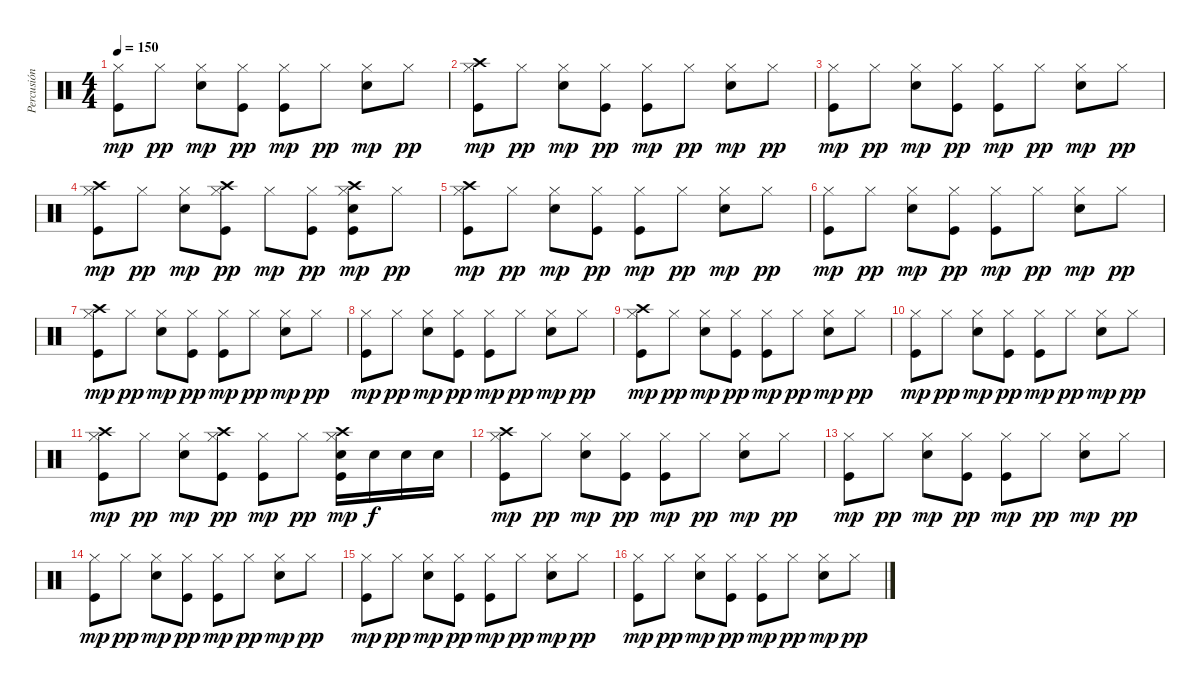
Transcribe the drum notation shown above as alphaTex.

\track ("Percusión" "Percusión") {instrument percussion}
\staff {score}
\articulation defaults
\ts (4 4)
\tempo 150
\clef neutral
\ks c
("Hi-Hat (closed)" "Kick (hit)").8{dy mp} "Hi-Hat (closed)".8{dy pp} ("Hi-Hat (closed)" "Snare (hit) 2").8{dy mp} ("Hi-Hat (closed)" "Kick (hit)").8{dy pp} ("Hi-Hat (closed)" "Kick (hit)").8{dy mp} "Hi-Hat (closed)".8{dy pp} ("Hi-Hat (closed)" "Snare (hit) 2").8{dy mp} "Hi-Hat (closed)".8{dy pp} |
("Crash high (hit)" "Hi-Hat (closed)" "Kick (hit)").8{dy mp} "Hi-Hat (closed)".8{dy pp} ("Hi-Hat (closed)" "Snare (hit) 2").8{dy mp} ("Hi-Hat (closed)" "Kick (hit)").8{dy pp} ("Hi-Hat (closed)" "Kick (hit)").8{dy mp} "Hi-Hat (closed)".8{dy pp} ("Hi-Hat (closed)" "Snare (hit) 2").8{dy mp} "Hi-Hat (closed)".8{dy pp} |
("Hi-Hat (closed)" "Kick (hit)").8{dy mp} "Hi-Hat (closed)".8{dy pp} ("Hi-Hat (closed)" "Snare (hit) 2").8{dy mp} ("Hi-Hat (closed)" "Kick (hit)").8{dy pp} ("Hi-Hat (closed)" "Kick (hit)").8{dy mp} "Hi-Hat (closed)".8{dy pp} ("Hi-Hat (closed)" "Snare (hit) 2").8{dy mp} "Hi-Hat (closed)".8{dy pp} |
("Crash high (hit)" "Hi-Hat (closed)" "Kick (hit)").8{dy mp} "Hi-Hat (closed)".8{dy pp} ("Hi-Hat (closed)" "Snare (hit) 2").8{dy mp} ("Crash high (hit)" "Hi-Hat (closed)" "Kick (hit)").8{dy pp} "Hi-Hat (closed)".8{dy mp} ("Hi-Hat (closed)" "Kick (hit)").8{dy pp} ("Crash high (hit)" "Hi-Hat (closed)" "Snare (hit) 2" "Kick (hit)").8{dy mp} "Hi-Hat (closed)".8{dy pp} |
("Crash high (hit)" "Hi-Hat (closed)" "Kick (hit)").8{dy mp} "Hi-Hat (closed)".8{dy pp} ("Hi-Hat (closed)" "Snare (hit) 2").8{dy mp} ("Hi-Hat (closed)" "Kick (hit)").8{dy pp} ("Hi-Hat (closed)" "Kick (hit)").8{dy mp} "Hi-Hat (closed)".8{dy pp} ("Hi-Hat (closed)" "Snare (hit) 2").8{dy mp} "Hi-Hat (closed)".8{dy pp} |
("Hi-Hat (closed)" "Kick (hit)").8{dy mp} "Hi-Hat (closed)".8{dy pp} ("Hi-Hat (closed)" "Snare (hit) 2").8{dy mp} ("Hi-Hat (closed)" "Kick (hit)").8{dy pp} ("Hi-Hat (closed)" "Kick (hit)").8{dy mp} "Hi-Hat (closed)".8{dy pp} ("Hi-Hat (closed)" "Snare (hit) 2").8{dy mp} "Hi-Hat (closed)".8{dy pp} |
("Crash high (hit)" "Hi-Hat (closed)" "Kick (hit)").8{dy mp} "Hi-Hat (closed)".8{dy pp} ("Hi-Hat (closed)" "Snare (hit) 2").8{dy mp} ("Hi-Hat (closed)" "Kick (hit)").8{dy pp} ("Hi-Hat (closed)" "Kick (hit)").8{dy mp} "Hi-Hat (closed)".8{dy pp} ("Hi-Hat (closed)" "Snare (hit) 2").8{dy mp} "Hi-Hat (closed)".8{dy pp} |
("Hi-Hat (closed)" "Kick (hit)").8{dy mp} "Hi-Hat (closed)".8{dy pp} ("Hi-Hat (closed)" "Snare (hit) 2").8{dy mp} ("Hi-Hat (closed)" "Kick (hit)").8{dy pp} ("Hi-Hat (closed)" "Kick (hit)").8{dy mp} "Hi-Hat (closed)".8{dy pp} ("Hi-Hat (closed)" "Snare (hit) 2").8{dy mp} "Hi-Hat (closed)".8{dy pp} |
("Crash high (hit)" "Hi-Hat (closed)" "Kick (hit)").8{dy mp} "Hi-Hat (closed)".8{dy pp} ("Hi-Hat (closed)" "Snare (hit) 2").8{dy mp} ("Hi-Hat (closed)" "Kick (hit)").8{dy pp} ("Hi-Hat (closed)" "Kick (hit)").8{dy mp} "Hi-Hat (closed)".8{dy pp} ("Hi-Hat (closed)" "Snare (hit) 2").8{dy mp} "Hi-Hat (closed)".8{dy pp} |
("Hi-Hat (closed)" "Kick (hit)").8{dy mp} "Hi-Hat (closed)".8{dy pp} ("Hi-Hat (closed)" "Snare (hit) 2").8{dy mp} ("Hi-Hat (closed)" "Kick (hit)").8{dy pp} ("Hi-Hat (closed)" "Kick (hit)").8{dy mp} "Hi-Hat (closed)".8{dy pp} ("Hi-Hat (closed)" "Snare (hit) 2").8{dy mp} "Hi-Hat (closed)".8{dy pp} |
("Crash high (hit)" "Hi-Hat (closed)" "Kick (hit)").8{dy mp} "Hi-Hat (closed)".8{dy pp} ("Hi-Hat (closed)" "Snare (hit) 2").8{dy mp} ("Crash high (hit)" "Hi-Hat (closed)" "Kick (hit)").8{dy pp} ("Hi-Hat (closed)" "Kick (hit)").8{dy mp} "Hi-Hat (closed)".8{dy pp} ("Crash high (hit)" "Hi-Hat (closed)" "Snare (hit) 2" "Kick (hit)").16{dy mp} "Snare (hit) 2".16{dy f} "Snare (hit) 2".16 "Snare (hit) 2".16 |
("Crash high (hit)" "Hi-Hat (closed)" "Kick (hit)").8{dy mp} "Hi-Hat (closed)".8{dy pp} ("Hi-Hat (closed)" "Snare (hit) 2").8{dy mp} ("Hi-Hat (closed)" "Kick (hit)").8{dy pp} ("Hi-Hat (closed)" "Kick (hit)").8{dy mp} "Hi-Hat (closed)".8{dy pp} ("Hi-Hat (closed)" "Snare (hit) 2").8{dy mp} "Hi-Hat (closed)".8{dy pp} |
("Hi-Hat (closed)" "Kick (hit)").8{dy mp} "Hi-Hat (closed)".8{dy pp} ("Hi-Hat (closed)" "Snare (hit) 2").8{dy mp} ("Hi-Hat (closed)" "Kick (hit)").8{dy pp} ("Hi-Hat (closed)" "Kick (hit)").8{dy mp} "Hi-Hat (closed)".8{dy pp} ("Hi-Hat (closed)" "Snare (hit) 2").8{dy mp} "Hi-Hat (closed)".8{dy pp} |
("Hi-Hat (closed)" "Kick (hit)").8{dy mp} "Hi-Hat (closed)".8{dy pp} ("Hi-Hat (closed)" "Snare (hit) 2").8{dy mp} ("Hi-Hat (closed)" "Kick (hit)").8{dy pp} ("Hi-Hat (closed)" "Kick (hit)").8{dy mp} "Hi-Hat (closed)".8{dy pp} ("Hi-Hat (closed)" "Snare (hit) 2").8{dy mp} "Hi-Hat (closed)".8{dy pp} |
("Hi-Hat (closed)" "Kick (hit)").8{dy mp} "Hi-Hat (closed)".8{dy pp} ("Hi-Hat (closed)" "Snare (hit) 2").8{dy mp} ("Hi-Hat (closed)" "Kick (hit)").8{dy pp} ("Hi-Hat (closed)" "Kick (hit)").8{dy mp} "Hi-Hat (closed)".8{dy pp} ("Hi-Hat (closed)" "Snare (hit) 2").8{dy mp} "Hi-Hat (closed)".8{dy pp} |
("Hi-Hat (closed)" "Kick (hit)").8{dy mp} "Hi-Hat (closed)".8{dy pp} ("Hi-Hat (closed)" "Snare (hit) 2").8{dy mp} ("Hi-Hat (closed)" "Kick (hit)").8{dy pp} ("Hi-Hat (closed)" "Kick (hit)").8{dy mp} "Hi-Hat (closed)".8{dy pp} ("Hi-Hat (closed)" "Snare (hit) 2").8{dy mp} "Hi-Hat (closed)".8{dy pp}
